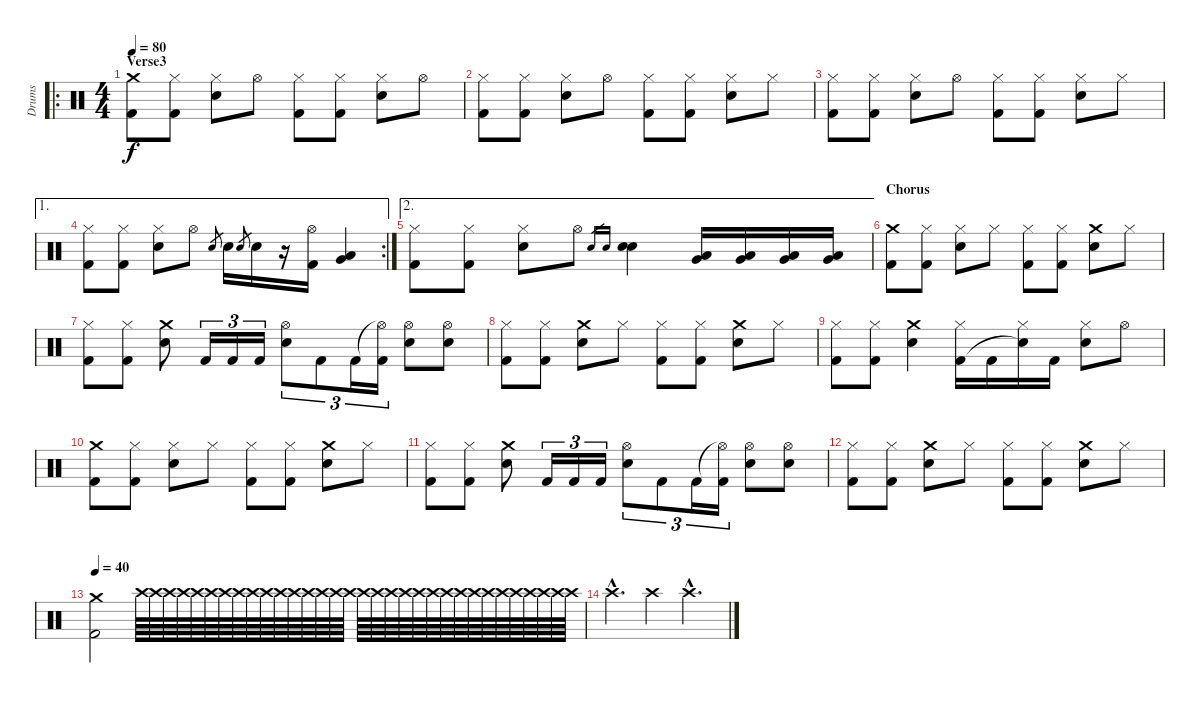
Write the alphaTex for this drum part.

\track ("Drums" "Drums") {instrument percussion}
\staff {score}
\articulation defaults
\ro
\ts (4 4)
\section ("" "Verse3")
\tempo 80
\clef neutral
\ks c
("Crash medium (hit)" "Kick (hit) 2").8{dy f} ("Hi-Hat (closed)" "Kick (hit) 2").8 ("Hi-Hat (closed)" "Snare (hit) 2").8 "Hi-Hat (open)".8 ("Hi-Hat (closed)" "Kick (hit) 2").8 ("Hi-Hat (closed)" "Kick (hit) 2").8 ("Hi-Hat (closed)" "Snare (hit) 2").8 "Hi-Hat (open)".8 |
("Hi-Hat (closed)" "Kick (hit) 2").8 ("Hi-Hat (closed)" "Kick (hit) 2").8 ("Hi-Hat (closed)" "Snare (hit) 2").8 "Hi-Hat (open)".8 ("Hi-Hat (closed)" "Kick (hit) 2").8 ("Hi-Hat (closed)" "Kick (hit) 2").8 ("Hi-Hat (closed)" "Snare (hit) 2").8 "Hi-Hat (closed)".8 |
("Hi-Hat (closed)" "Kick (hit) 2").8 ("Hi-Hat (closed)" "Kick (hit) 2").8 ("Hi-Hat (closed)" "Snare (hit) 2").8 "Hi-Hat (open)".8 ("Hi-Hat (closed)" "Kick (hit) 2").8 ("Hi-Hat (closed)" "Kick (hit) 2").8 ("Hi-Hat (closed)" "Snare (hit) 2").8 "Hi-Hat (closed)".8 |
\ae 1
\rc 2
("Hi-Hat (closed)" "Kick (hit) 2").8 ("Hi-Hat (closed)" "Kick (hit) 2").8 ("Hi-Hat (closed)" "Snare (hit) 2").8 "Hi-Hat (open)".8 "Snare (hit) 2".8{gr} "Snare (hit) 2".16 "Snare (hit) 2".8{gr} "Snare (hit) 2".16 r.16 ("Hi-Hat (open)" "Kick (hit) 2").16 ("Very Low Tom (hit)" "Low Tom (hit)").4 |
\ae 2
("Hi-Hat (closed)" "Kick (hit) 2").8 ("Hi-Hat (closed)" "Kick (hit) 2").8 ("Hi-Hat (closed)" "Snare (hit) 2").8 "Hi-Hat (open)".8 "Snare (hit) 2".16{gr} "Snare (hit) 2".16{gr} ("Snare (hit) 2" "Snare (hit) 2").4 ("Low Tom (hit)" "Very Low Tom (hit)").16 ("Low Tom (hit)" "Very Low Tom (hit)").16 ("Low Tom (hit)" "Very Low Tom (hit)").16 ("Low Tom (hit)" "Very Low Tom (hit)").16 |
\section ("" "Chorus")
("Crash medium (hit)" "Kick (hit) 2").8 ("Hi-Hat (closed)" "Kick (hit) 2").8 ("Hi-Hat (closed)" "Snare (hit) 2").8 "Hi-Hat (closed)".8 ("Hi-Hat (closed)" "Kick (hit) 2").8 ("Hi-Hat (closed)" "Kick (hit) 2").8 ("Crash medium (hit)" "Snare (hit) 2").8 "Hi-Hat (closed)".8 |
("Hi-Hat (closed)" "Kick (hit) 2").8 ("Hi-Hat (closed)" "Kick (hit) 2").8 ("Crash medium (hit)" "Snare (hit) 2").8 "Kick (hit) 2".16{tu (3 2)} "Kick (hit) 2".16{tu (3 2)} "Kick (hit) 2".16{tu (3 2)} ("Hi-Hat (open)" "Snare (hit) 2").8{tu (3 2)} "Kick (hit) 2".8{tu (3 2)} "Kick (hit) 2".16{tu (3 2)} ("Hi-Hat (open)"{t} "Kick (hit) 2").16{tu (3 2)} ("Hi-Hat (open)" "Snare (hit) 2").8 ("Hi-Hat (open)" "Snare (hit) 2").8 |
("Hi-Hat (closed)" "Kick (hit) 2").8 ("Hi-Hat (closed)" "Kick (hit) 2").8 ("Crash medium (hit)" "Snare (hit) 2").8 "Hi-Hat (closed)".8 ("Hi-Hat (closed)" "Kick (hit) 2").8 ("Hi-Hat (closed)" "Kick (hit) 2").8 ("Crash medium (hit)" "Snare (hit) 2").8 "Hi-Hat (closed)".8 |
("Hi-Hat (closed)" "Kick (hit) 2").8 ("Hi-Hat (closed)" "Kick (hit) 2").8 ("Crash medium (hit)" "Snare (hit) 2").4 ("Hi-Hat (closed)" "Kick (hit) 2").16 "Kick (hit) 2".16 ("Hi-Hat (closed)" "Snare (hit)"{t}).16 "Kick (hit) 2".16 ("Hi-Hat (closed)" "Snare (hit) 2").8 "Hi-Hat (open)".8 |
("Crash medium (hit)" "Kick (hit) 2").8 ("Hi-Hat (closed)" "Kick (hit) 2").8 ("Hi-Hat (closed)" "Snare (hit) 2").8 "Hi-Hat (closed)".8 ("Hi-Hat (closed)" "Kick (hit) 2").8 ("Hi-Hat (closed)" "Kick (hit) 2").8 ("Crash medium (hit)" "Snare (hit) 2").8 "Hi-Hat (closed)".8 |
("Hi-Hat (closed)" "Kick (hit) 2").8 ("Hi-Hat (closed)" "Kick (hit) 2").8 ("Crash medium (hit)" "Snare (hit) 2").8 "Kick (hit) 2".16{tu (3 2)} "Kick (hit) 2".16{tu (3 2)} "Kick (hit) 2".16{tu (3 2)} ("Hi-Hat (open)" "Snare (hit) 2").8{tu (3 2)} "Kick (hit) 2".8{tu (3 2)} "Kick (hit) 2".16{tu (3 2)} ("Hi-Hat (open)"{t} "Kick (hit) 2").16{tu (3 2)} ("Hi-Hat (open)" "Snare (hit) 2").8 ("Hi-Hat (open)" "Snare (hit) 2").8 |
("Hi-Hat (closed)" "Kick (hit) 2").8 ("Hi-Hat (closed)" "Kick (hit) 2").8 ("Crash medium (hit)" "Snare (hit) 2").8 "Hi-Hat (closed)".8 ("Hi-Hat (closed)" "Kick (hit) 2").8 ("Hi-Hat (closed)" "Kick (hit) 2").8 ("Crash medium (hit)" "Snare (hit) 2").8 "Hi-Hat (closed)".8 |
\tempo 40
("Crash medium (hit)" "Kick (hit) 2").2 "Crash high (hit)".64{volume 0} "Crash high (hit)".64{volume 15} "Crash high (hit)".64 "Crash high (hit)".64 "Crash high (hit)".64 "Crash high (hit)".64 "Crash high (hit)".64 "Crash high (hit)".64 "Crash high (hit)".64 "Crash high (hit)".64 "Crash high (hit)".64 "Crash high (hit)".64 "Crash high (hit)".64 "Crash high (hit)".64 "Crash high (hit)".64 "Crash high (hit)".64 "Crash high (hit)".64 "Crash high (hit)".64 "Crash high (hit)".64 "Crash high (hit)".64 "Crash high (hit)".64 "Crash high (hit)".64 "Crash high (hit)".64 "Crash high (hit)".64 "Crash high (hit)".64 "Crash high (hit)".64 "Crash high (hit)".64 "Crash high (hit)".64 "Crash high (hit)".64 "Crash high (hit)".64 "Crash high (hit)".64 "Crash high (hit)".64 |
"Crash high (hit)"{hac}.4{d} "Crash high (hit)".4 "Crash high (hit)"{hac}.4{d}
